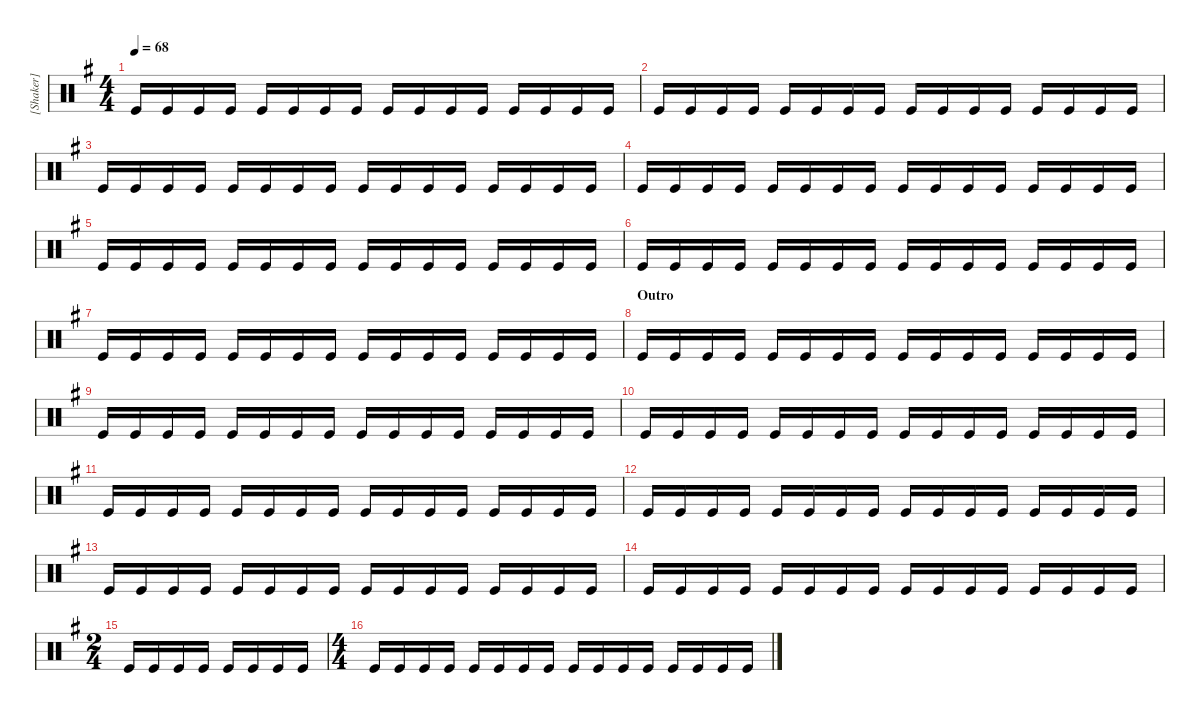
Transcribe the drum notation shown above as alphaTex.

\hideDynamics
\bracketExtendMode groupsimilarinstruments
\firstSystemTrackNameMode fullname
\otherSystemsTrackNameMode fullname
\otherSystemsTrackNameOrientation horizontal
\track ("[Shaker]" "Shaker") {instrument percussion}
\staff {score}
\articulation defaults
\ts (4 4)
\tempo 68
\clef neutral
\ks g "Kick (hit)".16{dy f} "Kick (hit)".16 "Kick (hit)".16 "Kick (hit)".16 "Kick (hit)".16 "Kick (hit)".16 "Kick (hit)".16 "Kick (hit)".16 "Kick (hit)".16 "Kick (hit)".16 "Kick (hit)".16 "Kick (hit)".16 "Kick (hit)".16 "Kick (hit)".16 "Kick (hit)".16 "Kick (hit)".16
|
"Kick (hit)".16 "Kick (hit)".16 "Kick (hit)".16 "Kick (hit)".16 "Kick (hit)".16 "Kick (hit)".16 "Kick (hit)".16 "Kick (hit)".16 "Kick (hit)".16 "Kick (hit)".16 "Kick (hit)".16 "Kick (hit)".16 "Kick (hit)".16 "Kick (hit)".16 "Kick (hit)".16 "Kick (hit)".16 |
"Kick (hit)".16 "Kick (hit)".16 "Kick (hit)".16 "Kick (hit)".16 "Kick (hit)".16 "Kick (hit)".16 "Kick (hit)".16 "Kick (hit)".16 "Kick (hit)".16 "Kick (hit)".16 "Kick (hit)".16 "Kick (hit)".16 "Kick (hit)".16 "Kick (hit)".16 "Kick (hit)".16 "Kick (hit)".16 |
"Kick (hit)".16 "Kick (hit)".16 "Kick (hit)".16 "Kick (hit)".16 "Kick (hit)".16 "Kick (hit)".16 "Kick (hit)".16 "Kick (hit)".16 "Kick (hit)".16 "Kick (hit)".16 "Kick (hit)".16 "Kick (hit)".16 "Kick (hit)".16 "Kick (hit)".16 "Kick (hit)".16 "Kick (hit)".16 |
"Kick (hit)".16 "Kick (hit)".16 "Kick (hit)".16 "Kick (hit)".16 "Kick (hit)".16 "Kick (hit)".16 "Kick (hit)".16 "Kick (hit)".16 "Kick (hit)".16 "Kick (hit)".16 "Kick (hit)".16 "Kick (hit)".16 "Kick (hit)".16 "Kick (hit)".16 "Kick (hit)".16 "Kick (hit)".16 |
"Kick (hit)".16 "Kick (hit)".16 "Kick (hit)".16 "Kick (hit)".16 "Kick (hit)".16 "Kick (hit)".16 "Kick (hit)".16 "Kick (hit)".16 "Kick (hit)".16 "Kick (hit)".16 "Kick (hit)".16 "Kick (hit)".16 "Kick (hit)".16 "Kick (hit)".16 "Kick (hit)".16 "Kick (hit)".16 |
"Kick (hit)".16 "Kick (hit)".16 "Kick (hit)".16 "Kick (hit)".16 "Kick (hit)".16 "Kick (hit)".16 "Kick (hit)".16 "Kick (hit)".16 "Kick (hit)".16 "Kick (hit)".16 "Kick (hit)".16 "Kick (hit)".16 "Kick (hit)".16 "Kick (hit)".16 "Kick (hit)".16 "Kick (hit)".16 |
\section ("" "Outro")
"Kick (hit)".16 "Kick (hit)".16 "Kick (hit)".16 "Kick (hit)".16 "Kick (hit)".16 "Kick (hit)".16 "Kick (hit)".16 "Kick (hit)".16 "Kick (hit)".16 "Kick (hit)".16 "Kick (hit)".16 "Kick (hit)".16 "Kick (hit)".16 "Kick (hit)".16 "Kick (hit)".16 "Kick (hit)".16 |
"Kick (hit)".16 "Kick (hit)".16 "Kick (hit)".16 "Kick (hit)".16 "Kick (hit)".16 "Kick (hit)".16 "Kick (hit)".16 "Kick (hit)".16 "Kick (hit)".16 "Kick (hit)".16 "Kick (hit)".16 "Kick (hit)".16 "Kick (hit)".16 "Kick (hit)".16 "Kick (hit)".16 "Kick (hit)".16 |
"Kick (hit)".16 "Kick (hit)".16 "Kick (hit)".16 "Kick (hit)".16 "Kick (hit)".16 "Kick (hit)".16 "Kick (hit)".16 "Kick (hit)".16 "Kick (hit)".16 "Kick (hit)".16 "Kick (hit)".16 "Kick (hit)".16 "Kick (hit)".16 "Kick (hit)".16 "Kick (hit)".16 "Kick (hit)".16 |
"Kick (hit)".16 "Kick (hit)".16 "Kick (hit)".16 "Kick (hit)".16 "Kick (hit)".16 "Kick (hit)".16 "Kick (hit)".16 "Kick (hit)".16 "Kick (hit)".16 "Kick (hit)".16 "Kick (hit)".16 "Kick (hit)".16 "Kick (hit)".16 "Kick (hit)".16 "Kick (hit)".16 "Kick (hit)".16 |
"Kick (hit)".16 "Kick (hit)".16 "Kick (hit)".16 "Kick (hit)".16 "Kick (hit)".16 "Kick (hit)".16 "Kick (hit)".16 "Kick (hit)".16 "Kick (hit)".16 "Kick (hit)".16 "Kick (hit)".16 "Kick (hit)".16 "Kick (hit)".16 "Kick (hit)".16 "Kick (hit)".16 "Kick (hit)".16 |
"Kick (hit)".16 "Kick (hit)".16 "Kick (hit)".16 "Kick (hit)".16 "Kick (hit)".16 "Kick (hit)".16 "Kick (hit)".16 "Kick (hit)".16 "Kick (hit)".16 "Kick (hit)".16 "Kick (hit)".16 "Kick (hit)".16 "Kick (hit)".16 "Kick (hit)".16 "Kick (hit)".16 "Kick (hit)".16 |
"Kick (hit)".16 "Kick (hit)".16 "Kick (hit)".16 "Kick (hit)".16 "Kick (hit)".16 "Kick (hit)".16 "Kick (hit)".16 "Kick (hit)".16 "Kick (hit)".16 "Kick (hit)".16 "Kick (hit)".16 "Kick (hit)".16 "Kick (hit)".16 "Kick (hit)".16 "Kick (hit)".16 "Kick (hit)".16 |
\ts (2 4)
"Kick (hit)".16 "Kick (hit)".16 "Kick (hit)".16 "Kick (hit)".16 "Kick (hit)".16 "Kick (hit)".16 "Kick (hit)".16 "Kick (hit)".16 |
\ts (4 4)
"Kick (hit)".16 "Kick (hit)".16 "Kick (hit)".16 "Kick (hit)".16 "Kick (hit)".16 "Kick (hit)".16 "Kick (hit)".16 "Kick (hit)".16 "Kick (hit)".16 "Kick (hit)".16 "Kick (hit)".16 "Kick (hit)".16 "Kick (hit)".16 "Kick (hit)".16 "Kick (hit)".16 "Kick (hit)".16
